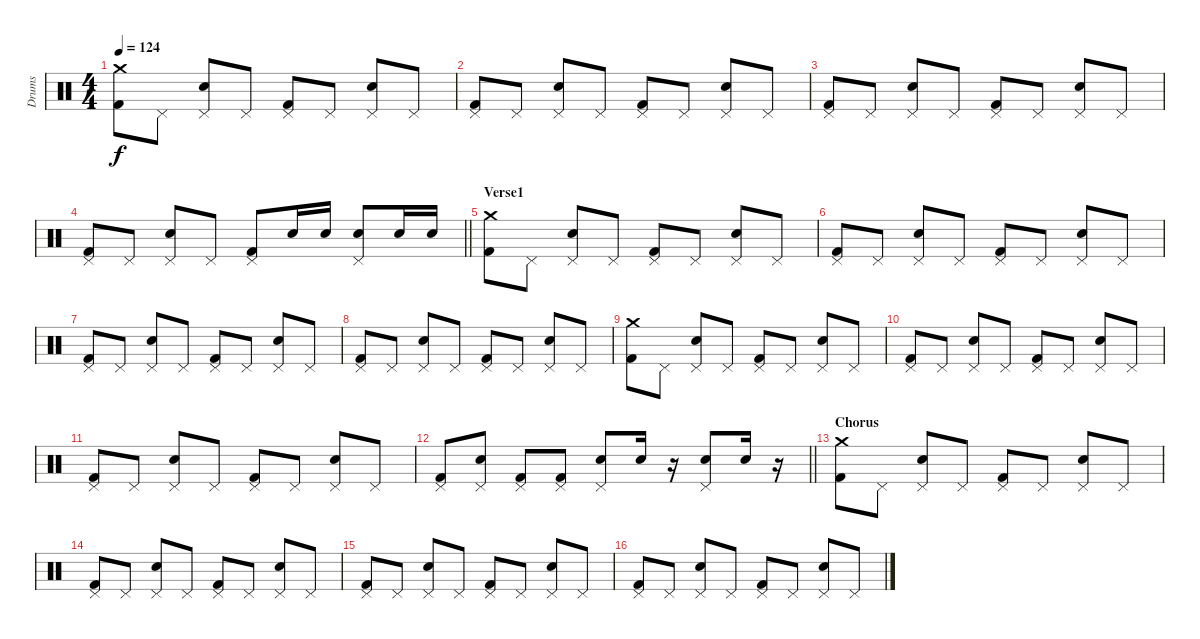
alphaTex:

\track ("Drums" "Drums") {instrument percussion}
\staff {score}
\articulation defaults
\ts (4 4)
\tempo 124
\clef neutral
\ks c
("Kick (hit) 2" "Crash medium (hit)").8{dy f} "Pedal Hi-Hat (hit)".8 ("Electric Snare (hit)" "Pedal Hi-Hat (hit)").8 "Pedal Hi-Hat (hit)".8 ("Kick (hit) 2" "Pedal Hi-Hat (hit)").8 "Pedal Hi-Hat (hit)".8 ("Electric Snare (hit)" "Pedal Hi-Hat (hit)").8 "Pedal Hi-Hat (hit)".8 |
("Kick (hit) 2" "Pedal Hi-Hat (hit)").8 "Pedal Hi-Hat (hit)".8 ("Electric Snare (hit)" "Pedal Hi-Hat (hit)").8 "Pedal Hi-Hat (hit)".8 ("Kick (hit) 2" "Pedal Hi-Hat (hit)").8 "Pedal Hi-Hat (hit)".8 ("Electric Snare (hit)" "Pedal Hi-Hat (hit)").8 "Pedal Hi-Hat (hit)".8 |
("Kick (hit) 2" "Pedal Hi-Hat (hit)").8 "Pedal Hi-Hat (hit)".8 ("Electric Snare (hit)" "Pedal Hi-Hat (hit)").8 "Pedal Hi-Hat (hit)".8 ("Kick (hit) 2" "Pedal Hi-Hat (hit)").8 "Pedal Hi-Hat (hit)".8 ("Electric Snare (hit)" "Pedal Hi-Hat (hit)").8 "Pedal Hi-Hat (hit)".8 |
\barLineRight lightlight
("Kick (hit) 2" "Pedal Hi-Hat (hit)").8 "Pedal Hi-Hat (hit)".8 ("Electric Snare (hit)" "Pedal Hi-Hat (hit)").8 "Pedal Hi-Hat (hit)".8 ("Kick (hit) 2" "Pedal Hi-Hat (hit)").8 "Electric Snare (hit)".16 "Electric Snare (hit)".16 ("Electric Snare (hit)" "Pedal Hi-Hat (hit)").8 "Electric Snare (hit)".16 "Electric Snare (hit)".16 |
\section ("" "Verse1")
("Kick (hit) 2" "Crash medium (hit)").8 "Pedal Hi-Hat (hit)".8 ("Electric Snare (hit)" "Pedal Hi-Hat (hit)").8 "Pedal Hi-Hat (hit)".8 ("Kick (hit) 2" "Pedal Hi-Hat (hit)").8 "Pedal Hi-Hat (hit)".8 ("Electric Snare (hit)" "Pedal Hi-Hat (hit)").8 "Pedal Hi-Hat (hit)".8 |
("Kick (hit) 2" "Pedal Hi-Hat (hit)").8 "Pedal Hi-Hat (hit)".8 ("Electric Snare (hit)" "Pedal Hi-Hat (hit)").8 "Pedal Hi-Hat (hit)".8 ("Kick (hit) 2" "Pedal Hi-Hat (hit)").8 "Pedal Hi-Hat (hit)".8 ("Electric Snare (hit)" "Pedal Hi-Hat (hit)").8 "Pedal Hi-Hat (hit)".8 |
("Kick (hit) 2" "Pedal Hi-Hat (hit)").8 "Pedal Hi-Hat (hit)".8 ("Electric Snare (hit)" "Pedal Hi-Hat (hit)").8 "Pedal Hi-Hat (hit)".8 ("Kick (hit) 2" "Pedal Hi-Hat (hit)").8 "Pedal Hi-Hat (hit)".8 ("Electric Snare (hit)" "Pedal Hi-Hat (hit)").8 "Pedal Hi-Hat (hit)".8 |
("Kick (hit) 2" "Pedal Hi-Hat (hit)").8 "Pedal Hi-Hat (hit)".8 ("Electric Snare (hit)" "Pedal Hi-Hat (hit)").8 "Pedal Hi-Hat (hit)".8 ("Kick (hit) 2" "Pedal Hi-Hat (hit)").8 "Pedal Hi-Hat (hit)".8 ("Electric Snare (hit)" "Pedal Hi-Hat (hit)").8 "Pedal Hi-Hat (hit)".8 |
("Kick (hit) 2" "Crash medium (hit)").8 "Pedal Hi-Hat (hit)".8 ("Electric Snare (hit)" "Pedal Hi-Hat (hit)").8 "Pedal Hi-Hat (hit)".8 ("Kick (hit) 2" "Pedal Hi-Hat (hit)").8 "Pedal Hi-Hat (hit)".8 ("Electric Snare (hit)" "Pedal Hi-Hat (hit)").8 "Pedal Hi-Hat (hit)".8 |
("Kick (hit) 2" "Pedal Hi-Hat (hit)").8 "Pedal Hi-Hat (hit)".8 ("Electric Snare (hit)" "Pedal Hi-Hat (hit)").8 "Pedal Hi-Hat (hit)".8 ("Kick (hit) 2" "Pedal Hi-Hat (hit)").8 "Pedal Hi-Hat (hit)".8 ("Electric Snare (hit)" "Pedal Hi-Hat (hit)").8 "Pedal Hi-Hat (hit)".8 |
("Kick (hit) 2" "Pedal Hi-Hat (hit)").8 "Pedal Hi-Hat (hit)".8 ("Electric Snare (hit)" "Pedal Hi-Hat (hit)").8 "Pedal Hi-Hat (hit)".8 ("Kick (hit) 2" "Pedal Hi-Hat (hit)").8 "Pedal Hi-Hat (hit)".8 ("Electric Snare (hit)" "Pedal Hi-Hat (hit)").8 "Pedal Hi-Hat (hit)".8 |
\barLineRight lightlight
("Kick (hit) 2" "Pedal Hi-Hat (hit)").8 ("Electric Snare (hit)" "Pedal Hi-Hat (hit)").8 ("Kick (hit) 2" "Pedal Hi-Hat (hit)").8 ("Kick (hit) 2" "Pedal Hi-Hat (hit)").8 ("Electric Snare (hit)" "Pedal Hi-Hat (hit)").8 "Electric Snare (hit)".16 r.16 ("Electric Snare (hit)" "Pedal Hi-Hat (hit)").8 "Electric Snare (hit)".16 r.16 |
\section ("" "Chorus")
("Kick (hit) 2" "Crash medium (hit)").8 "Pedal Hi-Hat (hit)".8 ("Electric Snare (hit)" "Pedal Hi-Hat (hit)").8 "Pedal Hi-Hat (hit)".8 ("Kick (hit) 2" "Pedal Hi-Hat (hit)").8 "Pedal Hi-Hat (hit)".8 ("Electric Snare (hit)" "Pedal Hi-Hat (hit)").8 "Pedal Hi-Hat (hit)".8 |
("Kick (hit) 2" "Pedal Hi-Hat (hit)").8 "Pedal Hi-Hat (hit)".8 ("Electric Snare (hit)" "Pedal Hi-Hat (hit)").8 "Pedal Hi-Hat (hit)".8 ("Kick (hit) 2" "Pedal Hi-Hat (hit)").8 "Pedal Hi-Hat (hit)".8 ("Electric Snare (hit)" "Pedal Hi-Hat (hit)").8 "Pedal Hi-Hat (hit)".8 |
("Kick (hit) 2" "Pedal Hi-Hat (hit)").8 "Pedal Hi-Hat (hit)".8 ("Electric Snare (hit)" "Pedal Hi-Hat (hit)").8 "Pedal Hi-Hat (hit)".8 ("Kick (hit) 2" "Pedal Hi-Hat (hit)").8 "Pedal Hi-Hat (hit)".8 ("Electric Snare (hit)" "Pedal Hi-Hat (hit)").8 "Pedal Hi-Hat (hit)".8 |
("Kick (hit) 2" "Pedal Hi-Hat (hit)").8 "Pedal Hi-Hat (hit)".8 ("Electric Snare (hit)" "Pedal Hi-Hat (hit)").8 "Pedal Hi-Hat (hit)".8 ("Kick (hit) 2" "Pedal Hi-Hat (hit)").8 "Pedal Hi-Hat (hit)".8 ("Electric Snare (hit)" "Pedal Hi-Hat (hit)").8 "Pedal Hi-Hat (hit)".8
